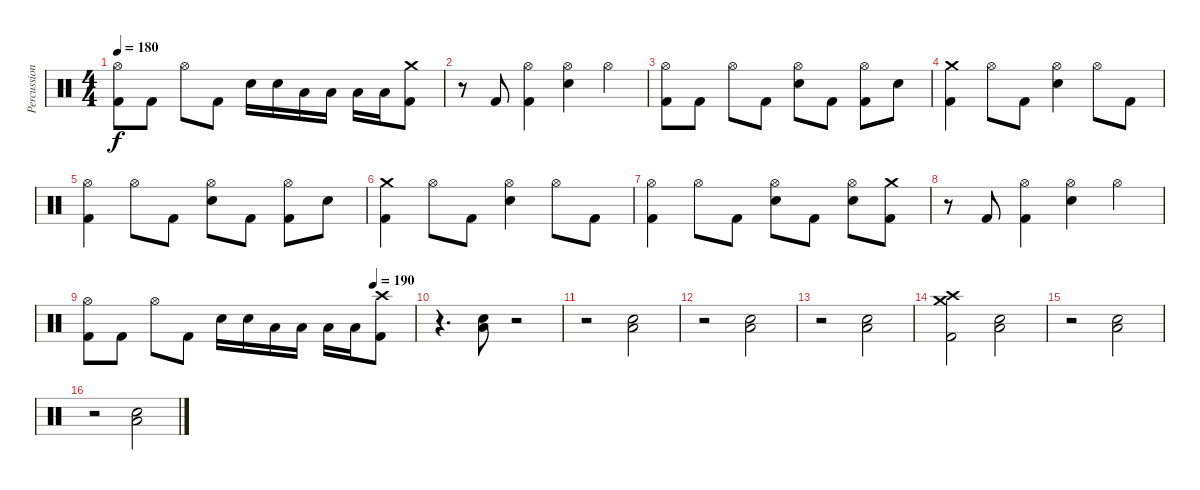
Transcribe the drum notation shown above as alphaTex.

\track ("Percussion" "Percussion") {instrument percussion}
\staff {score}
\articulation defaults
\ts (4 4)
\tempo 180
\clef neutral
\ks c
("Hi-Hat (open)" "Kick (hit) 2").8{dy f} "Kick (hit) 2".8 "Hi-Hat (open)".8 "Kick (hit) 2".8 "Electric Snare (hit)".16 "Electric Snare (hit)".16 "Low Tom (hit)".16 "Low Tom (hit)".16 "Low Floor Tom (hit)".16 "Low Floor Tom (hit)".16 ("Crash medium (hit)" "Kick (hit) 2").8 |
r.8 "Kick (hit) 2".8 ("Hi-Hat (open)" "Kick (hit) 2").4 ("Hi-Hat (open)" "Electric Snare (hit)").4 "Hi-Hat (open)".4 |
("Hi-Hat (open)" "Kick (hit) 2").8 "Kick (hit) 2".8 "Hi-Hat (open)".8 "Kick (hit) 2".8 ("Hi-Hat (open)" "Electric Snare (hit)").8 "Kick (hit) 2".8 ("Hi-Hat (open)" "Kick (hit) 2").8 "Electric Snare (hit)".8 |
("Crash medium (hit)" "Kick (hit) 2").4 "Hi-Hat (open)".8 "Kick (hit) 2".8 ("Hi-Hat (open)" "Electric Snare (hit)").4 "Hi-Hat (open)".8 "Kick (hit) 2".8 |
("Hi-Hat (open)" "Kick (hit) 2").4 "Hi-Hat (open)".8 "Kick (hit) 2".8 ("Hi-Hat (open)" "Electric Snare (hit)").8 "Kick (hit) 2".8 ("Hi-Hat (open)" "Kick (hit) 2").8 "Electric Snare (hit)".8 |
("Crash medium (hit)" "Kick (hit) 2").4 "Hi-Hat (open)".8 "Kick (hit) 2".8 ("Hi-Hat (open)" "Electric Snare (hit)").4 "Hi-Hat (open)".8 "Kick (hit) 2".8 |
("Hi-Hat (open)" "Kick (hit) 2").4 "Hi-Hat (open)".8 "Kick (hit) 2".8 ("Hi-Hat (open)" "Electric Snare (hit)").8 "Kick (hit) 2".8 ("Hi-Hat (open)" "Electric Snare (hit)").8 ("Crash medium (hit)" "Kick (hit) 2").8 |
r.8 "Kick (hit) 2".8 ("Hi-Hat (open)" "Kick (hit) 2").4 ("Hi-Hat (open)" "Electric Snare (hit)").4 "Hi-Hat (open)".4 |
\tempo (190 0.875)
("Hi-Hat (open)" "Kick (hit) 2").8 "Kick (hit) 2".8 "Hi-Hat (open)".8 "Kick (hit) 2".8 "Electric Snare (hit)".16 "Electric Snare (hit)".16 "Low Tom (hit)".16 "Low Tom (hit)".16 "Low Floor Tom (hit)".16 "Low Floor Tom (hit)".16 ("Crash high (hit)" "Kick (hit) 2").8 |
r.4{d} ("Low Floor Tom (hit)" "Electric Snare (hit)").8 r.2 |
r.2 ("Low Floor Tom (hit)" "Electric Snare (hit)").2 |
r.2 ("Low Floor Tom (hit)" "Electric Snare (hit)").2 |
r.2 ("Low Floor Tom (hit)" "Electric Snare (hit)").2 |
("Crash high (hit)" "Crash medium (hit)" "Kick (hit) 2").2 ("Low Floor Tom (hit)" "Electric Snare (hit)").2 |
r.2 ("Low Floor Tom (hit)" "Electric Snare (hit)").2 |
r.2 ("Low Floor Tom (hit)" "Electric Snare (hit)").2
